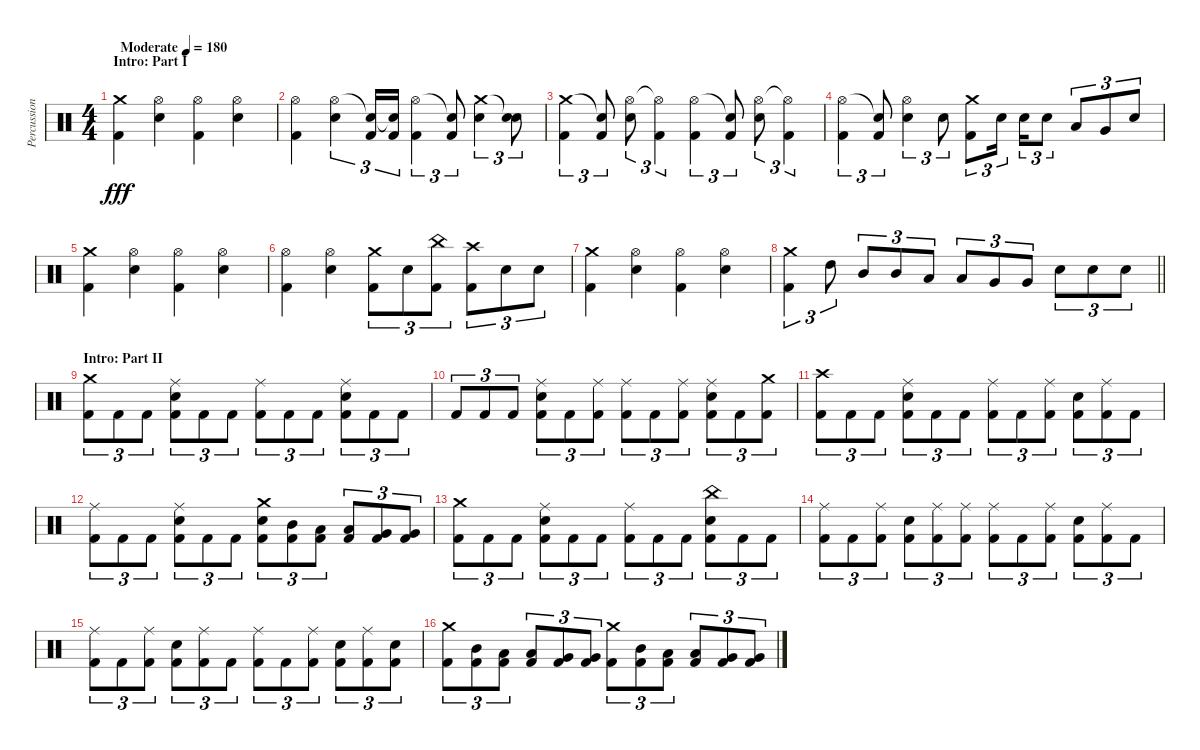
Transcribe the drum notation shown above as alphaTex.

\track ("Percussion" "Percussion") {instrument percussion}
\staff {score}
\articulation defaults
\ts (4 4)
\section ("" "Intro: Part I")
\tempo (180 "Moderate")
\clef neutral
\ks c
("Crash medium (hit)" "Kick (hit) 2").4{dy fff} ("Hi-Hat (open)" "Electric Snare (hit)").4 ("Hi-Hat (open)" "Kick (hit) 2").4 ("Hi-Hat (open)" "Electric Snare (hit)").4 |
("Hi-Hat (open)" "Kick (hit) 2").4 ("Hi-Hat (open)" "Electric Snare (hit)").4{tu (3 2)} ("Snare (hit)"{t} "Kick (hit) 2").16{tu (3 2)} ("Snare (hit)"{t} "Kick (hit) 2").16{tu (3 2)} ("Hi-Hat (open)" "Kick (hit) 2").4{tu (3 2)} ("Snare (hit)"{t} "Kick (hit) 2").8{tu (3 2)} ("Crash medium (hit)" "Electric Snare (hit)").4{tu (3 2)} ("Snare (hit)"{t} "Electric Snare (hit)").8{tu (3 2)} |
("Crash medium (hit)" "Kick (hit) 2").4{tu (3 2)} ("Snare (hit)"{t} "Kick (hit) 2").8{tu (3 2)} ("Hi-Hat (open)" "Electric Snare (hit)").8{tu (3 2)} ("Hi-Hat (open)"{t} "Kick (hit) 2").4{tu (3 2)} ("Hi-Hat (open)" "Kick (hit) 2").4{tu (3 2)} ("Snare (hit)"{t} "Kick (hit) 2").8{tu (3 2)} ("Hi-Hat (open)" "Electric Snare (hit)").8{tu (3 2)} ("Hi-Hat (open)"{t} "Kick (hit) 2").4{tu (3 2)} |
("Hi-Hat (open)" "Kick (hit) 2").4{tu (3 2)} ("Snare (hit)"{t} "Kick (hit) 2").8{tu (3 2)} ("Hi-Hat (open)" "Electric Snare (hit)").4{tu (3 2)} "Electric Snare (hit)".8{tu (3 2)} ("Crash medium (hit)" "Kick (hit) 2").8{tu (3 2)} "Electric Snare (hit)".16{tu (3 2)} "Electric Snare (hit)".16{tu (3 2)} "Electric Snare (hit)".8{tu (3 2)} "Low Tom (hit)".8{tu (3 2)} "Very Low Tom (hit)".8{tu (3 2)} "Electric Snare (hit)".8{tu (3 2)} |
("Crash medium (hit)" "Kick (hit) 2").4 ("Hi-Hat (open)" "Electric Snare (hit)").4 ("Hi-Hat (open)" "Kick (hit) 2").4 ("Hi-Hat (open)" "Electric Snare (hit)").4 |
("Hi-Hat (open)" "Kick (hit) 2").4 ("Hi-Hat (open)" "Electric Snare (hit)").4 ("Crash medium (hit)" "Kick (hit) 2").8{tu (3 2)} "Electric Snare (hit)".8{tu (3 2)} ("China (hit)" "Kick (hit) 2").8{tu (3 2)} ("Crash high (hit)" "Kick (hit) 2").8{tu (3 2)} "Electric Snare (hit)".8{tu (3 2)} "Electric Snare (hit)".8{tu (3 2)} |
("Crash medium (hit)" "Kick (hit) 2").4 ("Hi-Hat (open)" "Electric Snare (hit)").4 ("Hi-Hat (open)" "Kick (hit) 2").4 ("Hi-Hat (open)" "Electric Snare (hit)").4 |
\barLineRight lightlight
("Crash medium (hit)" "Kick (hit) 2").4{tu (3 2)} "High Tom (hit)".8{tu (3 2)} "Mid Tom (hit)".8{tu (3 2)} "Mid Tom (hit)".8{tu (3 2)} "Low Tom (hit)".8{tu (3 2)} "Low Tom (hit)".8{tu (3 2)} "Very Low Tom (hit)".8{tu (3 2)} "Very Low Tom (hit)".8{tu (3 2)} "Electric Snare (hit)".8{tu (3 2)} "Electric Snare (hit)".8{tu (3 2)} "Electric Snare (hit)".8{tu (3 2)} |
\section ("" "Intro: Part II")
("Crash medium (hit)" "Kick (hit) 2").8{tu (3 2)} "Kick (hit) 2".8{tu (3 2)} "Kick (hit) 2".8{tu (3 2)} ("Ride (middle)" "Electric Snare (hit)" "Kick (hit) 2").8{tu (3 2)} "Kick (hit) 2".8{tu (3 2)} "Kick (hit) 2".8{tu (3 2)} ("Ride (middle)" "Kick (hit) 2").8{tu (3 2)} "Kick (hit) 2".8{tu (3 2)} "Kick (hit) 2".8{tu (3 2)} ("Ride (middle)" "Electric Snare (hit)" "Kick (hit) 2").8{tu (3 2)} "Kick (hit) 2".8{tu (3 2)} "Kick (hit) 2".8{tu (3 2)} |
"Kick (hit) 2".8{tu (3 2)} "Kick (hit) 2".8{tu (3 2)} "Kick (hit) 2".8{tu (3 2)} ("Ride (middle)" "Electric Snare (hit)" "Kick (hit) 2").8{tu (3 2)} "Kick (hit) 2".8{tu (3 2)} ("Ride (middle)" "Kick (hit) 2").8{tu (3 2)} ("Ride (middle)" "Kick (hit) 2").8{tu (3 2)} "Kick (hit) 2".8{tu (3 2)} ("Ride (middle)" "Kick (hit) 2").8{tu (3 2)} ("Ride (middle)" "Electric Snare (hit)" "Kick (hit) 2").8{tu (3 2)} "Kick (hit) 2".8{tu (3 2)} ("Crash medium (hit)" "Kick (hit) 2").8{tu (3 2)} |
("Crash high (hit)" "Kick (hit) 2").8{tu (3 2)} "Kick (hit) 2".8{tu (3 2)} "Kick (hit) 2".8{tu (3 2)} ("Ride (middle)" "Electric Snare (hit)" "Kick (hit) 2").8{tu (3 2)} "Kick (hit) 2".8{tu (3 2)} "Kick (hit) 2".8{tu (3 2)} ("Ride (middle)" "Kick (hit) 2").8{tu (3 2)} "Kick (hit) 2".8{tu (3 2)} ("Ride (middle)" "Kick (hit) 2").8{tu (3 2)} ("Electric Snare (hit)" "Kick (hit) 2").8{tu (3 2)} ("Ride (middle)" "Kick (hit) 2").8{tu (3 2)} "Kick (hit) 2".8{tu (3 2)} |
("Ride (middle)" "Kick (hit) 2").8{tu (3 2)} "Kick (hit) 2".8{tu (3 2)} "Kick (hit) 2".8{tu (3 2)} ("Ride (middle)" "Electric Snare (hit)" "Kick (hit) 2").8{tu (3 2)} "Kick (hit) 2".8{tu (3 2)} "Kick (hit) 2".8{tu (3 2)} ("Crash medium (hit)" "Electric Snare (hit)" "Kick (hit) 2").8{tu (3 2)} ("Mid Tom (hit)" "Kick (hit) 2").8{tu (3 2)} ("Low Tom (hit)" "Kick (hit) 2").8{tu (3 2)} ("Low Tom (hit)" "Kick (hit) 2").8{tu (3 2)} ("Very Low Tom (hit)" "Kick (hit) 2").8{tu (3 2)} ("Very Low Tom (hit)" "Kick (hit) 2").8{tu (3 2)} |
("Crash medium (hit)" "Kick (hit) 2").8{tu (3 2)} "Kick (hit) 2".8{tu (3 2)} "Kick (hit) 2".8{tu (3 2)} ("Ride (middle)" "Electric Snare (hit)" "Kick (hit) 2").8{tu (3 2)} "Kick (hit) 2".8{tu (3 2)} "Kick (hit) 2".8{tu (3 2)} ("Ride (middle)" "Kick (hit) 2").8{tu (3 2)} "Kick (hit) 2".8{tu (3 2)} "Kick (hit) 2".8{tu (3 2)} ("China (hit)" "Electric Snare (hit)" "Kick (hit) 2").8{tu (3 2)} "Kick (hit) 2".8{tu (3 2)} "Kick (hit) 2".8{tu (3 2)} |
("Ride (middle)" "Kick (hit) 2").8{tu (3 2)} "Kick (hit) 2".8{tu (3 2)} ("Ride (middle)" "Kick (hit) 2").8{tu (3 2)} ("Electric Snare (hit)" "Kick (hit) 2").8{tu (3 2)} ("Ride (middle)" "Kick (hit) 2").8{tu (3 2)} ("Ride (middle)" "Kick (hit) 2").8{tu (3 2)} ("Ride (middle)" "Kick (hit) 2").8{tu (3 2)} "Kick (hit) 2".8{tu (3 2)} ("Ride (middle)" "Kick (hit) 2").8{tu (3 2)} ("Electric Snare (hit)" "Kick (hit) 2").8{tu (3 2)} ("Ride (middle)" "Kick (hit) 2").8{tu (3 2)} "Kick (hit) 2".8{tu (3 2)} |
("Ride (middle)" "Kick (hit) 2").8{tu (3 2)} "Kick (hit) 2".8{tu (3 2)} ("Ride (middle)" "Kick (hit) 2").8{tu (3 2)} ("Electric Snare (hit)" "Kick (hit) 2").8{tu (3 2)} ("Ride (middle)" "Kick (hit) 2").8{tu (3 2)} "Kick (hit) 2".8{tu (3 2)} ("Ride (middle)" "Kick (hit) 2").8{tu (3 2)} "Kick (hit) 2".8{tu (3 2)} ("Ride (middle)" "Kick (hit) 2").8{tu (3 2)} ("Electric Snare (hit)" "Kick (hit) 2").8{tu (3 2)} ("Ride (middle)" "Kick (hit) 2").8{tu (3 2)} ("Electric Snare (hit)" "Kick (hit) 2").8{tu (3 2)} |
("Crash medium (hit)" "Kick (hit) 2").8{tu (3 2)} ("Mid Tom (hit)" "Kick (hit) 2").8{tu (3 2)} ("Low Tom (hit)" "Kick (hit) 2").8{tu (3 2)} ("Low Tom (hit)" "Kick (hit) 2").8{tu (3 2)} ("Very Low Tom (hit)" "Kick (hit) 2").8{tu (3 2)} ("Very Low Tom (hit)" "Kick (hit) 2").8{tu (3 2)} ("Crash medium (hit)" "Kick (hit) 2").8{tu (3 2)} ("Mid Tom (hit)" "Kick (hit) 2").8{tu (3 2)} ("Low Tom (hit)" "Kick (hit) 2").8{tu (3 2)} ("Low Tom (hit)" "Kick (hit) 2").8{tu (3 2)} ("Very Low Tom (hit)" "Kick (hit) 2").8{tu (3 2)} ("Very Low Tom (hit)" "Kick (hit) 2").8{tu (3 2)}
